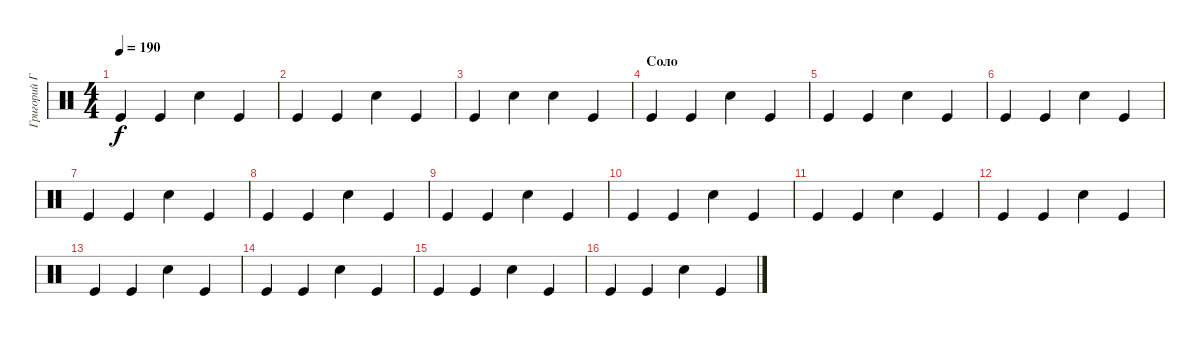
\track ("Григорий Габерман" "Григорий Г") {instrument percussion}
\staff {score}
\articulation defaults
\ts (4 4)
\tempo 190
\clef neutral
\ks c "Kick (hit)".4{dy f} "Kick (hit)".4 "Snare (hit) 2".4 "Kick (hit)".4
|
"Kick (hit)".4 "Kick (hit)".4 "Snare (hit) 2".4 "Kick (hit)".4 |
"Kick (hit)".4 "Snare (hit) 2".4 "Snare (hit) 2".4 "Kick (hit)".4 |
\section ("" "Соло")
"Kick (hit)".4 "Kick (hit)".4 "Snare (hit) 2".4 "Kick (hit)".4 |
"Kick (hit)".4 "Kick (hit)".4 "Snare (hit) 2".4 "Kick (hit)".4 |
"Kick (hit)".4 "Kick (hit)".4 "Snare (hit) 2".4 "Kick (hit)".4 |
"Kick (hit)".4 "Kick (hit)".4 "Snare (hit) 2".4 "Kick (hit)".4 |
"Kick (hit)".4 "Kick (hit)".4 "Snare (hit) 2".4 "Kick (hit)".4 |
"Kick (hit)".4 "Kick (hit)".4 "Snare (hit) 2".4 "Kick (hit)".4 |
"Kick (hit)".4 "Kick (hit)".4 "Snare (hit) 2".4 "Kick (hit)".4 |
"Kick (hit)".4 "Kick (hit)".4 "Snare (hit) 2".4 "Kick (hit)".4 |
"Kick (hit)".4 "Kick (hit)".4 "Snare (hit) 2".4 "Kick (hit)".4 |
"Kick (hit)".4 "Kick (hit)".4 "Snare (hit) 2".4 "Kick (hit)".4 |
"Kick (hit)".4 "Kick (hit)".4 "Snare (hit) 2".4 "Kick (hit)".4 |
"Kick (hit)".4 "Kick (hit)".4 "Snare (hit) 2".4 "Kick (hit)".4 |
"Kick (hit)".4 "Kick (hit)".4 "Snare (hit) 2".4 "Kick (hit)".4
